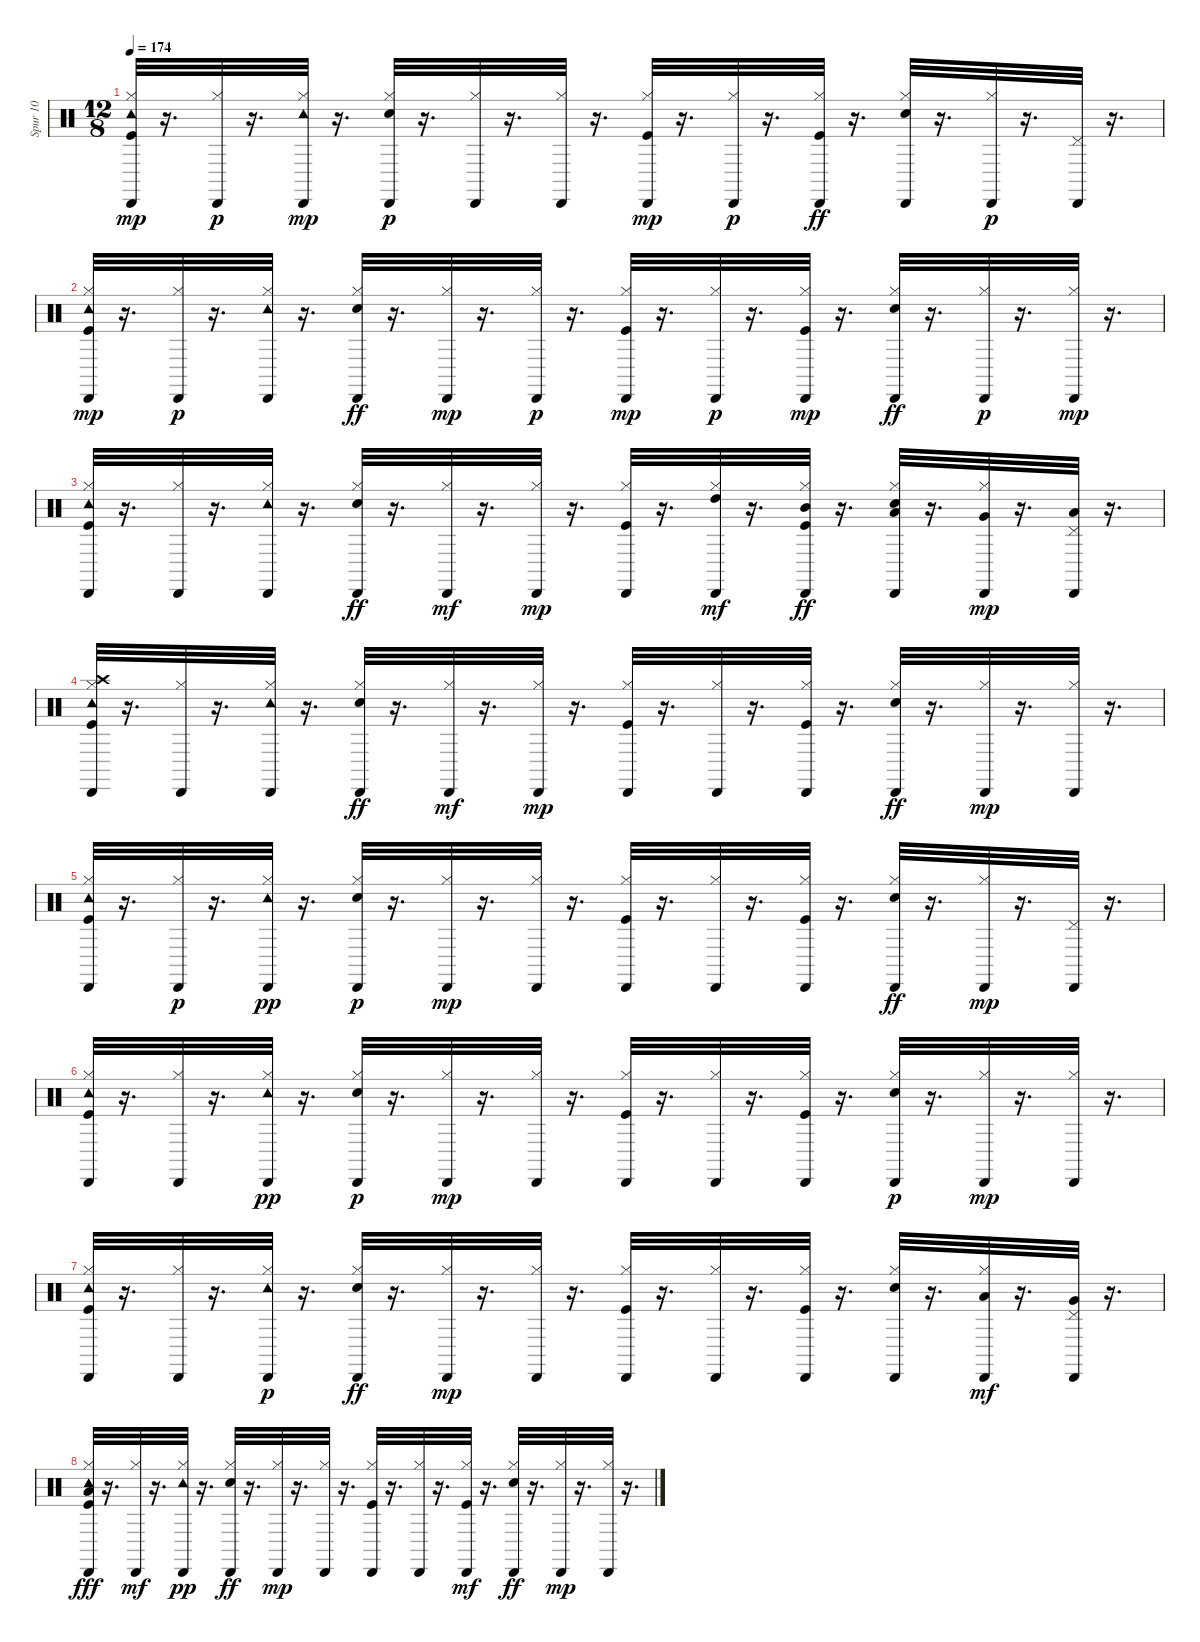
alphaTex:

\track ("Spur 10" "Spur 10") {instrument percussion}
\staff {score}
\articulation defaults
\ts (12 8)
\tempo 174
\clef neutral
\ks c
("Tambourine (hit)" "Hi-Hat (closed)" "Kick (hit)" "Cabasa (hit)").32{dy mp} r.16{d} ("Hi-Hat (closed)" "Cabasa (hit)").32{dy p} r.16{d} ("Tambourine (hit)" "Hi-Hat (closed)" "Cabasa (hit)").32{dy mp} r.16{d} ("Hi-Hat (closed)" "Electric Snare (hit)" "Cabasa (hit)").32{dy p} r.16{d} ("Hi-Hat (closed)" "Cabasa (hit)").32 r.16{d} ("Hi-Hat (closed)" "Cabasa (hit)").32 r.16{d} ("Hi-Hat (closed)" "Kick (hit)" "Cabasa (hit)").32{dy mp} r.16{d} ("Hi-Hat (closed)" "Cabasa (hit)").32{dy p} r.16{d} ("Hi-Hat (closed)" "Cabasa (hit)" "Kick (hit)").32{dy ff} r.16{d} ("Hi-Hat (closed)" "Cabasa (hit)" "Electric Snare (hit)").32 r.16{d} ("Hi-Hat (closed)" "Cabasa (hit)").32{dy p} r.16{d} ("Pedal Hi-Hat (hit)" "Cabasa (hit)").32 r.16{d} |
("Tambourine (hit)" "Hi-Hat (closed)" "Kick (hit)" "Cabasa (hit)").32{dy mp} r.16{d} ("Hi-Hat (closed)" "Cabasa (hit)").32{dy p} r.16{d} ("Tambourine (hit)" "Hi-Hat (closed)" "Cabasa (hit)").32 r.16{d} ("Hi-Hat (closed)" "Cabasa (hit)" "Electric Snare (hit)").32{dy ff} r.16{d} ("Hi-Hat (closed)" "Cabasa (hit)").32{dy mp} r.16{d} ("Hi-Hat (closed)" "Cabasa (hit)").32{dy p} r.16{d} ("Hi-Hat (closed)" "Kick (hit)" "Cabasa (hit)").32{dy mp} r.16{d} ("Hi-Hat (closed)" "Cabasa (hit)").32{dy p} r.16{d} ("Hi-Hat (closed)" "Kick (hit)" "Cabasa (hit)").32{dy mp} r.16{d} ("Hi-Hat (closed)" "Cabasa (hit)" "Electric Snare (hit)").32{dy ff} r.16{d} ("Hi-Hat (closed)" "Cabasa (hit)").32{dy p} r.16{d} ("Hi-Hat (closed)" "Cabasa (hit)").32{dy mp} r.16{d} |
("Tambourine (hit)" "Hi-Hat (closed)" "Kick (hit)" "Cabasa (hit)").32 r.16{d} ("Cabasa (hit)" "Hi-Hat (closed)").32 r.16{d} ("Tambourine (hit)" "Cabasa (hit)" "Hi-Hat (closed)").32 r.16{d} ("Cabasa (hit)" "Hi-Hat (closed)" "Electric Snare (hit)").32{dy ff} r.16{d} ("Cabasa (hit)" "Hi-Hat (closed)").32{dy mf} r.16{d} ("Hi-Hat (closed)" "Cabasa (hit)").32{dy mp} r.16{d} ("Cabasa (hit)" "Hi-Hat (closed)" "Kick (hit)").32 r.16{d} ("High Tom (hit)" "Cabasa (hit)" "Hi-Hat (closed)").32{dy mf} r.16{d} ("Cabasa (hit)" "Hi-Hat (closed)" "Mid Tom (hit)" "Kick (hit)").32{dy ff} r.16{d} ("Hi-Hat (closed)" "Cabasa (hit)" "Low Tom (hit)" "Electric Snare (hit)").32 r.16{d} ("Hi-Hat (closed)" "Very Low Tom (hit)" "Cabasa (hit)").32{dy mp} r.16{d} ("Pedal Hi-Hat (hit)" "Low Floor Tom (hit)" "Cabasa (hit)").32 r.16{d} |
("Tambourine (hit)" "Hi-Hat (closed)" "Kick (hit)" "Crash high (hit)" "Cabasa (hit)").32 r.16{d} ("Cabasa (hit)" "Hi-Hat (closed)").32 r.16{d} ("Tambourine (hit)" "Hi-Hat (closed)" "Cabasa (hit)").32 r.16{d} ("Cabasa (hit)" "Hi-Hat (closed)" "Electric Snare (hit)").32{dy ff} r.16{d} ("Cabasa (hit)" "Hi-Hat (closed)").32{dy mf} r.16{d} ("Hi-Hat (closed)" "Cabasa (hit)").32{dy mp} r.16{d} ("Kick (hit)" "Hi-Hat (closed)" "Cabasa (hit)").32 r.16{d} ("Cabasa (hit)" "Hi-Hat (closed)").32 r.16{d} ("Kick (hit)" "Hi-Hat (closed)" "Cabasa (hit)").32 r.16{d} ("Cabasa (hit)" "Hi-Hat (closed)" "Electric Snare (hit)").32{dy ff} r.16{d} ("Hi-Hat (closed)" "Cabasa (hit)").32{dy mp} r.16{d} ("Hi-Hat (closed)" "Cabasa (hit)").32 r.16{d} |
("Hi-Hat (closed)" "Kick (hit)" "Tambourine (hit)" "Cabasa (hit)").32 r.16{d} ("Hi-Hat (closed)" "Cabasa (hit)").32{dy p} r.16{d} ("Hi-Hat (closed)" "Cabasa (hit)" "Tambourine (hit)").32{dy pp} r.16{d} ("Hi-Hat (closed)" "Electric Snare (hit)" "Cabasa (hit)").32{dy p} r.16{d} ("Hi-Hat (closed)" "Cabasa (hit)").32{dy mp} r.16{d} ("Hi-Hat (closed)" "Cabasa (hit)").32 r.16{d} ("Hi-Hat (closed)" "Kick (hit)" "Cabasa (hit)").32 r.16{d} ("Cabasa (hit)" "Hi-Hat (closed)").32 r.16{d} ("Hi-Hat (closed)" "Cabasa (hit)" "Kick (hit)").32 r.16{d} ("Hi-Hat (closed)" "Cabasa (hit)" "Electric Snare (hit)").32{dy ff} r.16{d} ("Hi-Hat (closed)" "Cabasa (hit)").32{dy mp} r.16{d} ("Pedal Hi-Hat (hit)" "Cabasa (hit)").32 r.16{d} |
("Tambourine (hit)" "Hi-Hat (closed)" "Cabasa (hit)" "Kick (hit)").32 r.16{d} ("Hi-Hat (closed)" "Cabasa (hit)").32 r.16{d} ("Hi-Hat (closed)" "Cabasa (hit)" "Tambourine (hit)").32{dy pp} r.16{d} ("Hi-Hat (closed)" "Electric Snare (hit)" "Cabasa (hit)").32{dy p} r.16{d} ("Hi-Hat (closed)" "Cabasa (hit)").32{dy mp} r.16{d} ("Hi-Hat (closed)" "Cabasa (hit)").32 r.16{d} ("Kick (hit)" "Cabasa (hit)" "Hi-Hat (closed)").32 r.16{d} ("Cabasa (hit)" "Hi-Hat (closed)").32 r.16{d} ("Hi-Hat (closed)" "Kick (hit)" "Cabasa (hit)").32 r.16{d} ("Hi-Hat (closed)" "Electric Snare (hit)" "Cabasa (hit)").32{dy p} r.16{d} ("Hi-Hat (closed)" "Cabasa (hit)").32{dy mp} r.16{d} ("Hi-Hat (closed)" "Cabasa (hit)").32 r.16{d} |
("Tambourine (hit)" "Kick (hit)" "Cabasa (hit)" "Hi-Hat (closed)").32 r.16{d} ("Cabasa (hit)" "Hi-Hat (closed)").32 r.16{d} ("Hi-Hat (closed)" "Tambourine (hit)" "Cabasa (hit)").32{dy p} r.16{d} ("Hi-Hat (closed)" "Cabasa (hit)" "Electric Snare (hit)").32{dy ff} r.16{d} ("Hi-Hat (closed)" "Cabasa (hit)").32{dy mp} r.16{d} ("Hi-Hat (closed)" "Cabasa (hit)").32 r.16{d} ("Kick (hit)" "Hi-Hat (closed)" "Cabasa (hit)").32 r.16{d} ("Cabasa (hit)" "Hi-Hat (closed)").32 r.16{d} ("Hi-Hat (closed)" "Kick (hit)" "Cabasa (hit)").32 r.16{d} ("Electric Snare (hit)" "Hi-Hat (closed)" "Cabasa (hit)").32 r.16{d} ("Cabasa (hit)" "Hi-Hat (closed)" "Low Tom (hit)").32{dy mf} r.16{d} ("Very Low Tom (hit)" "Cabasa (hit)" "Pedal Hi-Hat (hit)").32 r.16{d} |
("Tambourine (hit)" "Cabasa (hit)" "Hi-Hat (closed)" "Kick (hit)" "Low Floor Tom (hit)").32{dy fff} r.16{d} ("Cabasa (hit)" "Hi-Hat (closed)").32{dy mf} r.16{d} ("Hi-Hat (closed)" "Cabasa (hit)" "Tambourine (hit)").32{dy pp} r.16{d} ("Hi-Hat (closed)" "Cabasa (hit)" "Electric Snare (hit)").32{dy ff} r.16{d} ("Hi-Hat (closed)" "Cabasa (hit)").32{dy mp} r.16{d} ("Hi-Hat (closed)" "Cabasa (hit)").32 r.16{d} ("Kick (hit)" "Cabasa (hit)" "Hi-Hat (closed)").32 r.16{d} ("Hi-Hat (closed)" "Cabasa (hit)").32 r.16{d} ("Cabasa (hit)" "Hi-Hat (closed)" "Kick (hit)").32{dy mf} r.16{d} ("Cabasa (hit)" "Hi-Hat (closed)" "Electric Snare (hit)").32{dy ff} r.16{d} ("Hi-Hat (closed)" "Cabasa (hit)").32{dy mp} r.16{d} ("Hi-Hat (closed)" "Cabasa (hit)").32 r.16{d}
